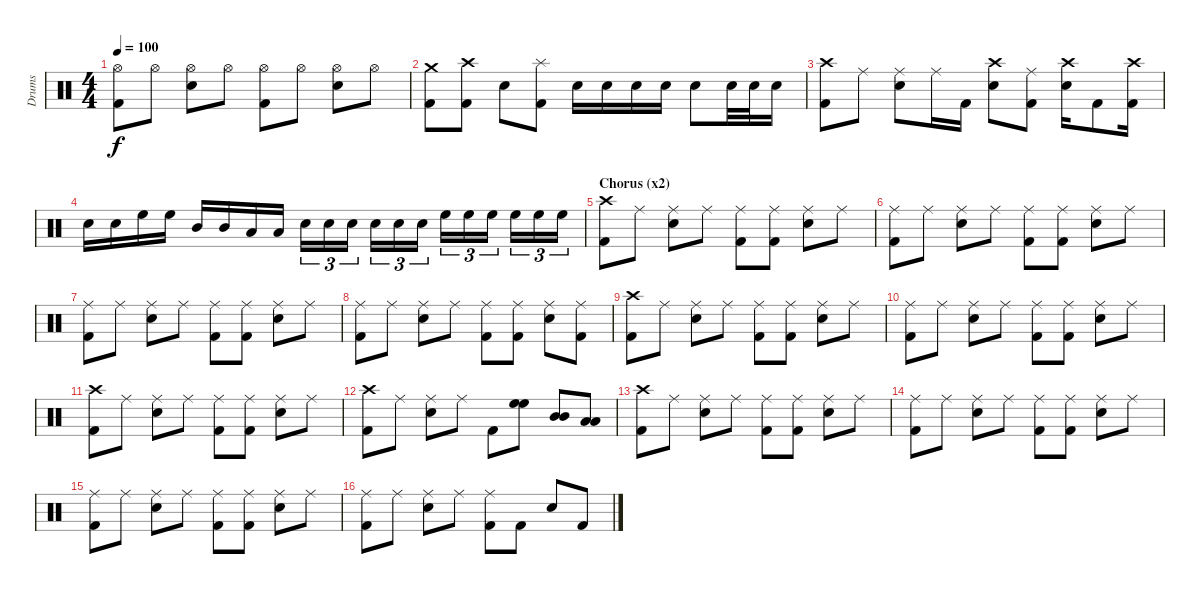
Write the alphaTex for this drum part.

\track ("Drums" "Drums") {instrument percussion}
\staff {score}
\articulation defaults
\ts (4 4)
\tempo 100
\clef neutral
\ks c
("Hi-Hat (open)" "Kick (hit) 2").8{dy f} "Hi-Hat (open)".8 ("Hi-Hat (open)" "Snare (hit) 2").8 "Hi-Hat (open)".8 ("Hi-Hat (open)" "Kick (hit) 2").8 "Hi-Hat (open)".8 ("Hi-Hat (open)" "Snare (hit) 2").8 "Hi-Hat (open)".8 |
("Crash medium (hit)" "Kick (hit) 2").8 ("Crash high (hit)" "Kick (hit) 2").8 "Snare (hit) 2".8 ("Splash (hit)" "Kick (hit) 2").8 "Snare (hit) 2".16 "Snare (hit) 2".16 "Snare (hit) 2".16 "Snare (hit) 2".16 "Snare (hit) 2".8 "Snare (hit) 2".32 "Snare (hit) 2".32 "Snare (hit) 2".16 |
("Crash high (hit)" "Kick (hit) 2").8 "Ride (middle)".8 ("Ride (middle)" "Snare (hit) 2").8 "Ride (middle)".16 "Kick (hit) 2".16 ("Crash high (hit)" "Snare (hit) 2").8 ("Ride (middle)" "Kick (hit) 2").8 ("Crash high (hit)" "Snare (hit) 2").16 "Kick (hit) 2".8 ("Crash high (hit)" "Kick (hit) 2").16 |
"Snare (hit) 2".16 "Snare (hit) 2".16 "High Floor Tom (hit)".16 "High Floor Tom (hit)".16 "Mid Tom (hit)".16 "Mid Tom (hit)".16 "Low Tom (hit)".16 "Low Tom (hit)".16 "Snare (hit) 2".16{tu (3 2)} "Snare (hit) 2".16{tu (3 2)} "Snare (hit) 2".16{tu (3 2)} "Snare (hit) 2".16{tu (3 2)} "Snare (hit) 2".16{tu (3 2)} "Snare (hit) 2".16{tu (3 2)} "High Floor Tom (hit)".16{tu (3 2)} "High Floor Tom (hit)".16{tu (3 2)} "High Floor Tom (hit)".16{tu (3 2)} "High Floor Tom (hit)".16{tu (3 2)} "High Floor Tom (hit)".16{tu (3 2)} "High Floor Tom (hit)".16{tu (3 2)} |
\section ("" "Chorus (x2)")
("Crash high (hit)" "Kick (hit) 2").8 "Ride (middle)".8 ("Ride (middle)" "Snare (hit) 2").8 "Ride (middle)".8 ("Ride (middle)" "Kick (hit) 2").8 ("Ride (middle)" "Kick (hit) 2").8 ("Ride (middle)" "Snare (hit) 2").8 "Ride (middle)".8 |
("Ride (middle)" "Kick (hit) 2").8 "Ride (middle)".8 ("Ride (middle)" "Snare (hit) 2").8 "Ride (middle)".8 ("Ride (middle)" "Kick (hit) 2").8 ("Ride (middle)" "Kick (hit) 2").8 ("Ride (middle)" "Snare (hit) 2").8 "Ride (middle)".8 |
("Ride (middle)" "Kick (hit) 2").8 "Ride (middle)".8 ("Ride (middle)" "Snare (hit) 2").8 "Ride (middle)".8 ("Ride (middle)" "Kick (hit) 2").8 ("Ride (middle)" "Kick (hit) 2").8 ("Ride (middle)" "Snare (hit) 2").8 "Ride (middle)".8 |
("Ride (middle)" "Kick (hit) 2").8 "Ride (middle)".8 ("Ride (middle)" "Snare (hit) 2").8 "Ride (middle)".8 ("Ride (middle)" "Kick (hit) 2").8 ("Ride (middle)" "Kick (hit) 2").8 ("Ride (middle)" "Snare (hit) 2").8 ("Ride (middle)" "Kick (hit) 2").8 |
("Crash high (hit)" "Kick (hit) 2").8 "Ride (middle)".8 ("Ride (middle)" "Snare (hit) 2").8 "Ride (middle)".8 ("Ride (middle)" "Kick (hit) 2").8 ("Ride (middle)" "Kick (hit) 2").8 ("Ride (middle)" "Snare (hit) 2").8 "Ride (middle)".8 |
("Ride (middle)" "Kick (hit) 2").8 "Ride (middle)".8 ("Ride (middle)" "Snare (hit) 2").8 "Ride (middle)".8 ("Ride (middle)" "Kick (hit) 2").8 ("Ride (middle)" "Kick (hit) 2").8 ("Ride (middle)" "Snare (hit) 2").8 "Ride (middle)".8 |
("Crash high (hit)" "Kick (hit) 2").8 "Ride (middle)".8 ("Ride (middle)" "Snare (hit) 2").8 "Ride (middle)".8 ("Ride (middle)" "Kick (hit) 2").8 ("Ride (middle)" "Kick (hit) 2").8 ("Ride (middle)" "Snare (hit) 2").8 "Ride (middle)".8 |
("Crash high (hit)" "Kick (hit) 2").8 "Ride (middle)".8 ("Ride (middle)" "Snare (hit) 2").8 "Ride (middle)".8 "Kick (hit) 2".8 ("High Floor Tom (hit)" "High Floor Tom (hit)").8 ("Mid Tom (hit)" "Mid Tom (hit)").8 ("Low Tom (hit)" "Low Tom (hit)").8 |
("Crash high (hit)" "Kick (hit) 2").8 "Ride (middle)".8 ("Ride (middle)" "Snare (hit) 2").8 "Ride (middle)".8 ("Ride (middle)" "Kick (hit) 2").8 ("Ride (middle)" "Kick (hit) 2").8 ("Ride (middle)" "Snare (hit) 2").8 "Ride (middle)".8 |
("Ride (middle)" "Kick (hit) 2").8 "Ride (middle)".8 ("Ride (middle)" "Snare (hit) 2").8 "Ride (middle)".8 ("Ride (middle)" "Kick (hit) 2").8 ("Ride (middle)" "Kick (hit) 2").8 ("Ride (middle)" "Snare (hit) 2").8 "Ride (middle)".8 |
("Ride (middle)" "Kick (hit) 2").8 "Ride (middle)".8 ("Ride (middle)" "Snare (hit) 2").8 "Ride (middle)".8 ("Ride (middle)" "Kick (hit) 2").8 ("Ride (middle)" "Kick (hit) 2").8 ("Ride (middle)" "Snare (hit) 2").8 "Ride (middle)".8 |
("Ride (middle)" "Kick (hit) 2").8 "Ride (middle)".8 ("Ride (middle)" "Snare (hit) 2").8 "Ride (middle)".8 ("Ride (middle)" "Kick (hit) 2").8 "Kick (hit) 2".8 "Snare (hit) 2".8 "Kick (hit) 2".8
